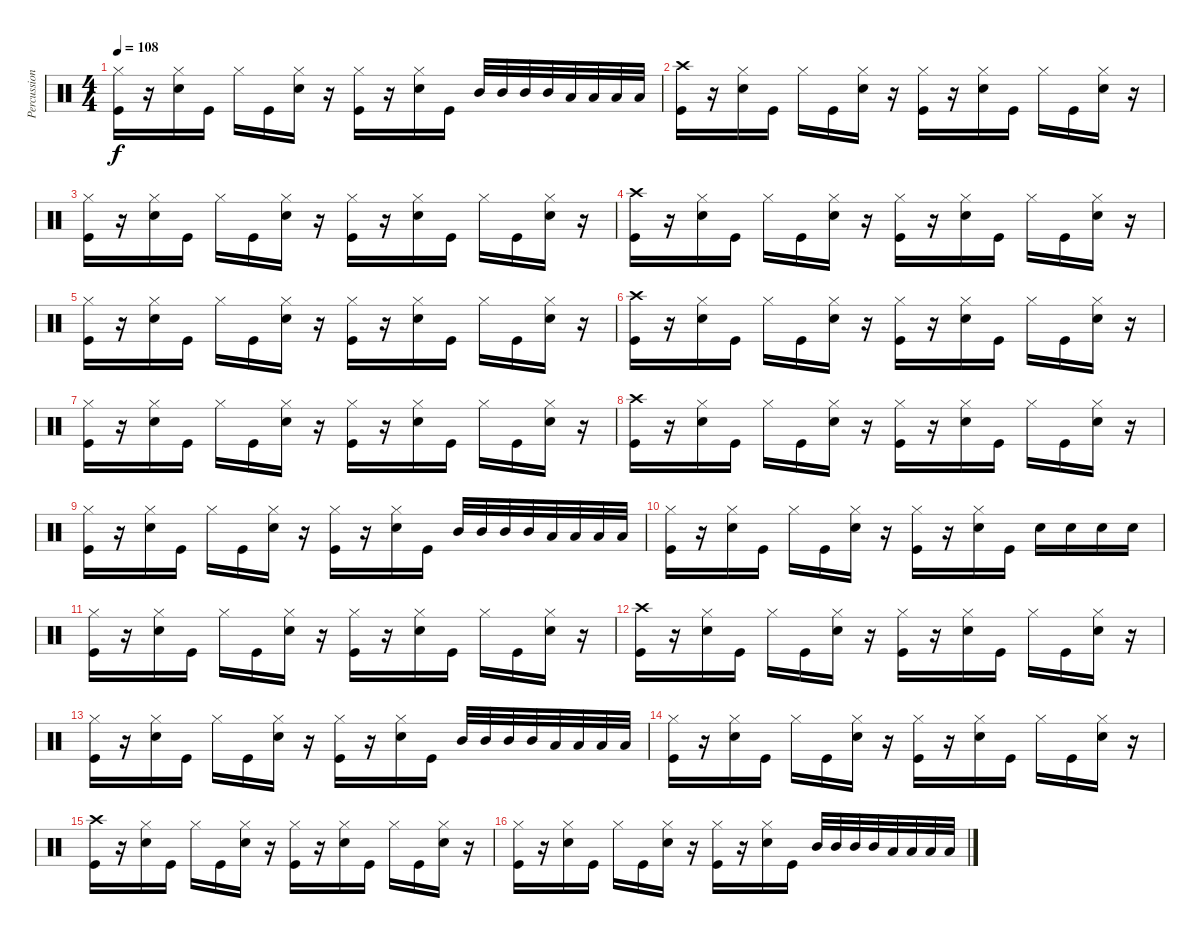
\track ("Percussion" "Percussion") {instrument percussion}
\staff {score}
\articulation defaults
\ts (4 4)
\tempo 108
\clef neutral
\ks c
("Hi-Hat (closed)" "Kick (hit)").16{dy f} r.16 ("Snare (hit) 2" "Hi-Hat (closed)").16 "Kick (hit)".16 "Hi-Hat (closed)".16 "Kick (hit)".16 ("Snare (hit) 2" "Hi-Hat (closed)").16 r.16 ("Kick (hit)" "Hi-Hat (closed)").16 r.16 ("Snare (hit) 2" "Hi-Hat (closed)").16 "Kick (hit)".16 "Mid Tom (hit)".32 "Mid Tom (hit)".32 "Mid Tom (hit)".32 "Mid Tom (hit)".32 "Low Tom (hit)".32 "Low Tom (hit)".32 "Low Tom (hit)".32 "Low Tom (hit)".32 |
("Kick (hit)" "Crash high (hit)").16 r.16 ("Snare (hit) 2" "Hi-Hat (closed)").16 "Kick (hit)".16 "Hi-Hat (closed)".16 "Kick (hit)".16 ("Snare (hit) 2" "Hi-Hat (closed)").16 r.16 ("Kick (hit)" "Hi-Hat (closed)").16 r.16 ("Snare (hit) 2" "Hi-Hat (closed)").16 "Kick (hit)".16 "Hi-Hat (closed)".16 "Kick (hit)".16 ("Snare (hit) 2" "Hi-Hat (closed)").16 r.16 |
("Hi-Hat (closed)" "Kick (hit)").16 r.16 ("Snare (hit) 2" "Hi-Hat (closed)").16 "Kick (hit)".16 "Hi-Hat (closed)".16 "Kick (hit)".16 ("Snare (hit) 2" "Hi-Hat (closed)").16 r.16 ("Kick (hit)" "Hi-Hat (closed)").16 r.16 ("Snare (hit) 2" "Hi-Hat (closed)").16 "Kick (hit)".16 "Hi-Hat (closed)".16 "Kick (hit)".16 ("Snare (hit) 2" "Hi-Hat (closed)").16 r.16 |
("Kick (hit)" "Crash high (hit)").16 r.16 ("Snare (hit) 2" "Hi-Hat (closed)").16 "Kick (hit)".16 "Hi-Hat (closed)".16 "Kick (hit)".16 ("Snare (hit) 2" "Hi-Hat (closed)").16 r.16 ("Kick (hit)" "Hi-Hat (closed)").16 r.16 ("Snare (hit) 2" "Hi-Hat (closed)").16 "Kick (hit)".16 "Hi-Hat (closed)".16 "Kick (hit)".16 ("Snare (hit) 2" "Hi-Hat (closed)").16 r.16 |
("Hi-Hat (closed)" "Kick (hit)").16 r.16 ("Snare (hit) 2" "Hi-Hat (closed)").16 "Kick (hit)".16 "Hi-Hat (closed)".16 "Kick (hit)".16 ("Snare (hit) 2" "Hi-Hat (closed)").16 r.16 ("Kick (hit)" "Hi-Hat (closed)").16 r.16 ("Snare (hit) 2" "Hi-Hat (closed)").16 "Kick (hit)".16 "Hi-Hat (closed)".16 "Kick (hit)".16 ("Snare (hit) 2" "Hi-Hat (closed)").16 r.16 |
("Kick (hit)" "Crash high (hit)").16 r.16 ("Snare (hit) 2" "Hi-Hat (closed)").16 "Kick (hit)".16 "Hi-Hat (closed)".16 "Kick (hit)".16 ("Snare (hit) 2" "Hi-Hat (closed)").16 r.16 ("Kick (hit)" "Hi-Hat (closed)").16 r.16 ("Snare (hit) 2" "Hi-Hat (closed)").16 "Kick (hit)".16 "Hi-Hat (closed)".16 "Kick (hit)".16 ("Snare (hit) 2" "Hi-Hat (closed)").16 r.16 |
("Hi-Hat (closed)" "Kick (hit)").16 r.16 ("Snare (hit) 2" "Hi-Hat (closed)").16 "Kick (hit)".16 "Hi-Hat (closed)".16 "Kick (hit)".16 ("Snare (hit) 2" "Hi-Hat (closed)").16 r.16 ("Kick (hit)" "Hi-Hat (closed)").16 r.16 ("Snare (hit) 2" "Hi-Hat (closed)").16 "Kick (hit)".16 "Hi-Hat (closed)".16 "Kick (hit)".16 ("Snare (hit) 2" "Hi-Hat (closed)").16 r.16 |
("Kick (hit)" "Crash high (hit)").16 r.16 ("Snare (hit) 2" "Hi-Hat (closed)").16 "Kick (hit)".16 "Hi-Hat (closed)".16 "Kick (hit)".16 ("Snare (hit) 2" "Hi-Hat (closed)").16 r.16 ("Kick (hit)" "Hi-Hat (closed)").16 r.16 ("Snare (hit) 2" "Hi-Hat (closed)").16 "Kick (hit)".16 "Hi-Hat (closed)".16 "Kick (hit)".16 ("Snare (hit) 2" "Hi-Hat (closed)").16 r.16 |
("Hi-Hat (closed)" "Kick (hit)").16 r.16 ("Snare (hit) 2" "Hi-Hat (closed)").16 "Kick (hit)".16 "Hi-Hat (closed)".16 "Kick (hit)".16 ("Snare (hit) 2" "Hi-Hat (closed)").16 r.16 ("Kick (hit)" "Hi-Hat (closed)").16 r.16 ("Snare (hit) 2" "Hi-Hat (closed)").16 "Kick (hit)".16 "Mid Tom (hit)".32 "Mid Tom (hit)".32 "Mid Tom (hit)".32 "Mid Tom (hit)".32 "Low Tom (hit)".32 "Low Tom (hit)".32 "Low Tom (hit)".32 "Low Tom (hit)".32 |
("Hi-Hat (closed)" "Kick (hit)").16 r.16 ("Snare (hit) 2" "Hi-Hat (closed)").16 "Kick (hit)".16 "Hi-Hat (closed)".16 "Kick (hit)".16 ("Snare (hit) 2" "Hi-Hat (closed)").16 r.16 ("Kick (hit)" "Hi-Hat (closed)").16 r.16 ("Snare (hit) 2" "Hi-Hat (closed)").16 "Kick (hit)".16 "Snare (hit) 2".16 "Snare (hit) 2".16 "Snare (hit) 2".16 "Snare (hit) 2".16 |
("Hi-Hat (closed)" "Kick (hit)").16 r.16 ("Snare (hit) 2" "Hi-Hat (closed)").16 "Kick (hit)".16 "Hi-Hat (closed)".16 "Kick (hit)".16 ("Snare (hit) 2" "Hi-Hat (closed)").16 r.16 ("Kick (hit)" "Hi-Hat (closed)").16 r.16 ("Snare (hit) 2" "Hi-Hat (closed)").16 "Kick (hit)".16 "Hi-Hat (closed)".16 "Kick (hit)".16 ("Snare (hit) 2" "Hi-Hat (closed)").16 r.16 |
("Kick (hit)" "Crash high (hit)").16 r.16 ("Snare (hit) 2" "Hi-Hat (closed)").16 "Kick (hit)".16 "Hi-Hat (closed)".16 "Kick (hit)".16 ("Snare (hit) 2" "Hi-Hat (closed)").16 r.16 ("Kick (hit)" "Hi-Hat (closed)").16 r.16 ("Snare (hit) 2" "Hi-Hat (closed)").16 "Kick (hit)".16 "Hi-Hat (closed)".16 "Kick (hit)".16 ("Snare (hit) 2" "Hi-Hat (closed)").16 r.16 |
("Hi-Hat (closed)" "Kick (hit)").16 r.16 ("Snare (hit) 2" "Hi-Hat (closed)").16 "Kick (hit)".16 "Hi-Hat (closed)".16 "Kick (hit)".16 ("Snare (hit) 2" "Hi-Hat (closed)").16 r.16 ("Kick (hit)" "Hi-Hat (closed)").16 r.16 ("Snare (hit) 2" "Hi-Hat (closed)").16 "Kick (hit)".16 "Mid Tom (hit)".32 "Mid Tom (hit)".32 "Mid Tom (hit)".32 "Mid Tom (hit)".32 "Low Tom (hit)".32 "Low Tom (hit)".32 "Low Tom (hit)".32 "Low Tom (hit)".32 |
("Hi-Hat (closed)" "Kick (hit)").16 r.16 ("Snare (hit) 2" "Hi-Hat (closed)").16 "Kick (hit)".16 "Hi-Hat (closed)".16 "Kick (hit)".16 ("Snare (hit) 2" "Hi-Hat (closed)").16 r.16 ("Kick (hit)" "Hi-Hat (closed)").16 r.16 ("Snare (hit) 2" "Hi-Hat (closed)").16 "Kick (hit)".16 "Hi-Hat (closed)".16 "Kick (hit)".16 ("Snare (hit) 2" "Hi-Hat (closed)").16 r.16 |
("Kick (hit)" "Crash high (hit)").16 r.16 ("Snare (hit) 2" "Hi-Hat (closed)").16 "Kick (hit)".16 "Hi-Hat (closed)".16 "Kick (hit)".16 ("Snare (hit) 2" "Hi-Hat (closed)").16 r.16 ("Kick (hit)" "Hi-Hat (closed)").16 r.16 ("Snare (hit) 2" "Hi-Hat (closed)").16 "Kick (hit)".16 "Hi-Hat (closed)".16 "Kick (hit)".16 ("Snare (hit) 2" "Hi-Hat (closed)").16 r.16 |
("Hi-Hat (closed)" "Kick (hit)").16 r.16 ("Snare (hit) 2" "Hi-Hat (closed)").16 "Kick (hit)".16 "Hi-Hat (closed)".16 "Kick (hit)".16 ("Snare (hit) 2" "Hi-Hat (closed)").16 r.16 ("Kick (hit)" "Hi-Hat (closed)").16 r.16 ("Snare (hit) 2" "Hi-Hat (closed)").16 "Kick (hit)".16 "Mid Tom (hit)".32 "Mid Tom (hit)".32 "Mid Tom (hit)".32 "Mid Tom (hit)".32 "Low Tom (hit)".32 "Low Tom (hit)".32 "Low Tom (hit)".32 "Low Tom (hit)".32
